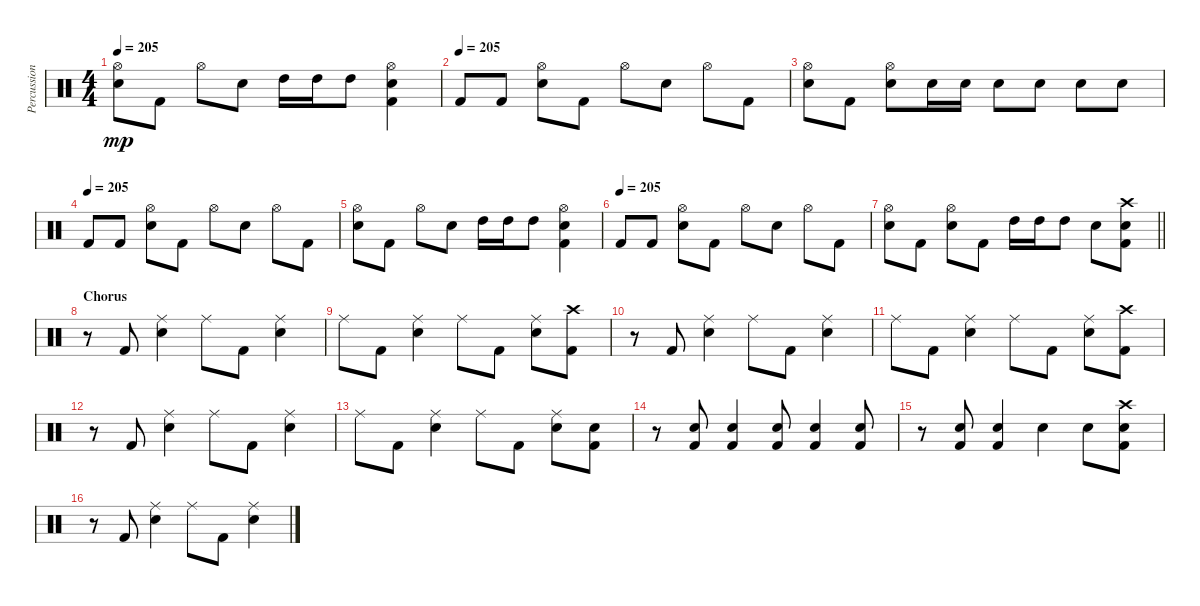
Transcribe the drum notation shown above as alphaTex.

\track ("Percussion" "Percussion") {instrument percussion}
\staff {score}
\articulation defaults
\ts (4 4)
\tempo 205
\clef neutral
\ks c
("Hi-Hat (open)" "Snare (hit) 2").8{dy mp} "Kick (hit) 2".8 "Hi-Hat (open)".8 "Snare (hit) 2".8 "High Tom (hit)".16 "High Tom (hit)".16 "High Tom (hit)".8 ("Hi-Hat (open)" "Snare (hit) 2" "Kick (hit) 2").4 |
\tempo (205)
"Kick (hit) 2".8 "Kick (hit) 2".8 ("Hi-Hat (open)" "Snare (hit) 2").8 "Kick (hit) 2".8 "Hi-Hat (open)".8 "Snare (hit) 2".8 "Hi-Hat (open)".8 "Kick (hit) 2".8 |
("Hi-Hat (open)" "Snare (hit) 2").8 "Kick (hit) 2".8 ("Hi-Hat (open)" "Snare (hit) 2").8 "Snare (hit) 2".16 "Snare (hit) 2".16 "Snare (hit) 2".8 "Snare (hit) 2".8 "Snare (hit) 2".8 "Snare (hit) 2".8 |
\tempo (205)
"Kick (hit) 2".8 "Kick (hit) 2".8 ("Hi-Hat (open)" "Snare (hit) 2").8 "Kick (hit) 2".8 "Hi-Hat (open)".8 "Snare (hit) 2".8 "Hi-Hat (open)".8 "Kick (hit) 2".8 |
("Hi-Hat (open)" "Snare (hit) 2").8 "Kick (hit) 2".8 "Hi-Hat (open)".8 "Snare (hit) 2".8 "High Tom (hit)".16 "High Tom (hit)".16 "High Tom (hit)".8 ("Hi-Hat (open)" "Snare (hit) 2" "Kick (hit) 2").4 |
\tempo (205)
"Kick (hit) 2".8 "Kick (hit) 2".8 ("Hi-Hat (open)" "Snare (hit) 2").8 "Kick (hit) 2".8 "Hi-Hat (open)".8 "Snare (hit) 2".8 "Hi-Hat (open)".8 "Kick (hit) 2".8 |
\barLineRight lightlight
("Hi-Hat (open)" "Snare (hit) 2").8 "Kick (hit) 2".8 ("Hi-Hat (open)" "Snare (hit) 2").8 "Kick (hit) 2".8 "High Tom (hit)".16 "High Tom (hit)".16 "High Tom (hit)".8 "Snare (hit) 2".8 ("Crash high (hit)" "Snare (hit) 2" "Kick (hit) 2").8 |
\section ("" "Chorus")
r.8 "Kick (hit) 2".8 ("Ride (middle)" "Snare (hit) 2").4 "Ride (middle)".8 "Kick (hit) 2".8 ("Ride (middle)" "Snare (hit) 2").4 |
"Ride (middle)".8 "Kick (hit) 2".8 ("Ride (middle)" "Snare (hit) 2").4 "Ride (middle)".8 "Kick (hit) 2".8 ("Ride (middle)" "Snare (hit) 2").8 ("Crash high (hit)" "Kick (hit) 2").8 |
r.8 "Kick (hit) 2".8 ("Ride (middle)" "Snare (hit) 2").4 "Ride (middle)".8 "Kick (hit) 2".8 ("Ride (middle)" "Snare (hit) 2").4 |
"Ride (middle)".8 "Kick (hit) 2".8 ("Ride (middle)" "Snare (hit) 2").4 "Ride (middle)".8 "Kick (hit) 2".8 ("Ride (middle)" "Snare (hit) 2").8 ("Crash high (hit)" "Kick (hit) 2").8 |
r.8 "Kick (hit) 2".8 ("Ride (middle)" "Snare (hit) 2").4 "Ride (middle)".8 "Kick (hit) 2".8 ("Ride (middle)" "Snare (hit) 2").4 |
"Ride (middle)".8 "Kick (hit) 2".8 ("Ride (middle)" "Snare (hit) 2").4 "Ride (middle)".8 "Kick (hit) 2".8 ("Ride (middle)" "Snare (hit) 2").8 ("Snare (hit) 2" "Kick (hit) 2").8 |
r.8 ("Snare (hit) 2" "Kick (hit) 2").8 ("Snare (hit) 2" "Kick (hit) 2").4 ("Snare (hit) 2" "Kick (hit) 2").8 ("Snare (hit) 2" "Kick (hit) 2").4 ("Snare (hit) 2" "Kick (hit) 2").8 |
r.8 ("Snare (hit) 2" "Kick (hit) 2").8 ("Snare (hit) 2" "Kick (hit) 2").4 "Snare (hit) 2".4 "Snare (hit) 2".8 ("Crash high (hit)" "Snare (hit) 2" "Kick (hit) 2").8 |
r.8 "Kick (hit) 2".8 ("Ride (middle)" "Snare (hit) 2").4 "Ride (middle)".8 "Kick (hit) 2".8 ("Ride (middle)" "Snare (hit) 2").4
